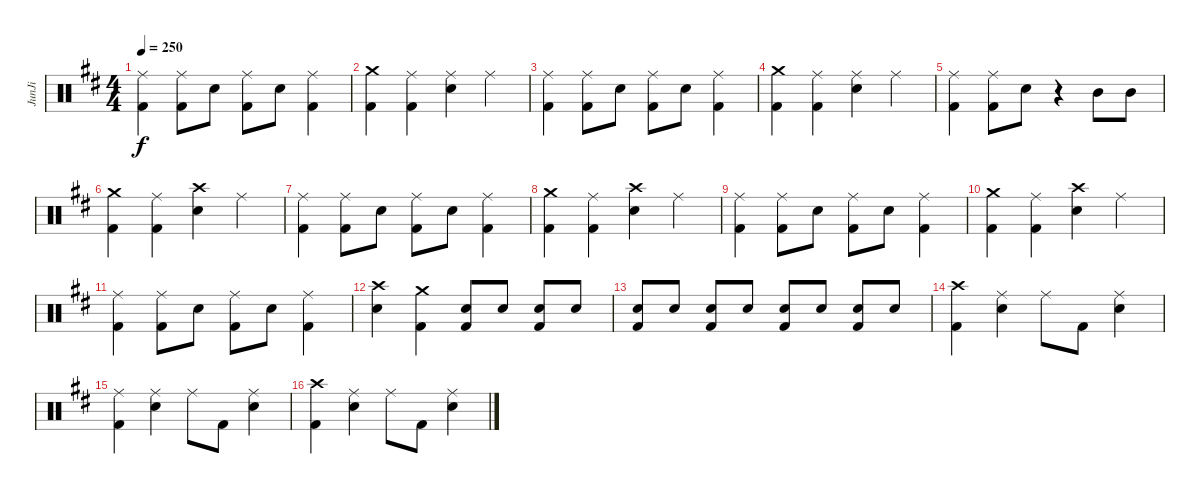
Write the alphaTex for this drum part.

\track ("JunJi" "JunJi") {instrument percussion}
\staff {score}
\articulation defaults
\ts (4 4)
\tempo 250
\clef neutral
\ks d
("Ride (middle)" "Kick (hit) 2").4{dy f} ("Ride (middle)" "Kick (hit) 2").8 "Snare (hit) 2".8 ("Ride (middle)" "Kick (hit) 2").8 "Snare (hit) 2".8 ("Ride (middle)" "Kick (hit) 2").4 |
("Crash medium (hit)" "Kick (hit) 2").4 ("Ride (middle)" "Kick (hit) 2").4 ("Ride (middle)" "Snare (hit) 2").4 "Ride (middle)".4 |
("Ride (middle)" "Kick (hit) 2").4 ("Ride (middle)" "Kick (hit) 2").8 "Snare (hit) 2".8 ("Ride (middle)" "Kick (hit) 2").8 "Snare (hit) 2".8 ("Ride (middle)" "Kick (hit) 2").4 |
("Crash medium (hit)" "Kick (hit) 2").4 ("Ride (middle)" "Kick (hit) 2").4 ("Ride (middle)" "Snare (hit) 2").4 "Ride (middle)".4 |
("Ride (middle)" "Kick (hit) 2").4 ("Ride (middle)" "Kick (hit) 2").8 "Snare (hit) 2".8 r.4 "Mid Tom (hit)".8 "Mid Tom (hit)".8 |
("Crash medium (hit)" "Kick (hit) 2").4 ("Ride (middle)" "Kick (hit) 2").4 ("Crash high (hit)" "Snare (hit) 2").4 "Ride (middle)".4 |
("Ride (middle)" "Kick (hit) 2").4 ("Ride (middle)" "Kick (hit) 2").8 "Snare (hit) 2".8 ("Ride (middle)" "Kick (hit) 2").8 "Snare (hit) 2".8 ("Ride (middle)" "Kick (hit) 2").4 |
("Crash medium (hit)" "Kick (hit) 2").4 ("Ride (middle)" "Kick (hit) 2").4 ("Crash high (hit)" "Snare (hit) 2").4 "Ride (middle)".4 |
("Ride (middle)" "Kick (hit) 2").4 ("Ride (middle)" "Kick (hit) 2").8 "Snare (hit) 2".8 ("Ride (middle)" "Kick (hit) 2").8 "Snare (hit) 2".8 ("Ride (middle)" "Kick (hit) 2").4 |
("Crash medium (hit)" "Kick (hit) 2").4 ("Ride (middle)" "Kick (hit) 2").4 ("Crash high (hit)" "Snare (hit) 2").4 "Ride (middle)".4 |
("Ride (middle)" "Kick (hit) 2").4 ("Ride (middle)" "Kick (hit) 2").8 "Snare (hit) 2".8 ("Ride (middle)" "Kick (hit) 2").8 "Snare (hit) 2".8 ("Ride (middle)" "Kick (hit) 2").4 |
("Crash high (hit)" "Snare (hit) 2").4 ("Crash medium (hit)" "Kick (hit) 2").4 ("Snare (hit) 2" "Kick (hit) 2").8 "Snare (hit) 2".8 ("Snare (hit) 2" "Kick (hit) 2").8 "Snare (hit) 2".8 |
("Snare (hit) 2" "Kick (hit) 2").8 "Snare (hit) 2".8 ("Snare (hit) 2" "Kick (hit) 2").8 "Snare (hit) 2".8 ("Snare (hit) 2" "Kick (hit) 2").8 "Snare (hit) 2".8 ("Snare (hit) 2" "Kick (hit) 2").8 "Snare (hit) 2".8 |
("Crash high (hit)" "Kick (hit) 2").4 ("Ride (middle)" "Snare (hit) 2").4 "Ride (middle)".8 "Kick (hit) 2".8 ("Ride (middle)" "Snare (hit) 2").4 |
("Ride (middle)" "Kick (hit) 2").4 ("Ride (middle)" "Snare (hit) 2").4 "Ride (middle)".8 "Kick (hit) 2".8 ("Ride (middle)" "Snare (hit) 2").4 |
("Crash high (hit)" "Kick (hit) 2").4 ("Ride (middle)" "Snare (hit) 2").4 "Ride (middle)".8 "Kick (hit) 2".8 ("Ride (middle)" "Snare (hit) 2").4
